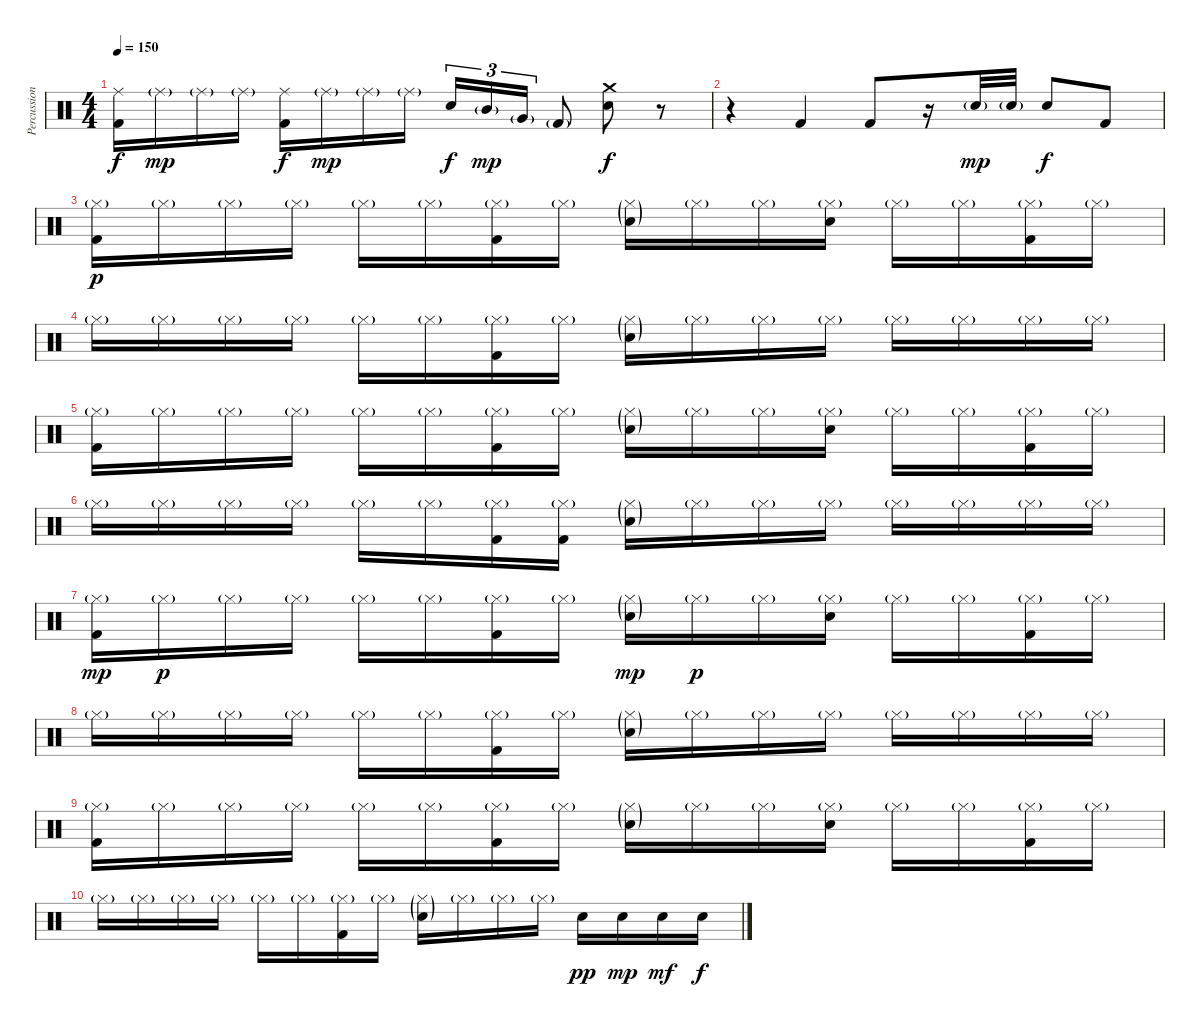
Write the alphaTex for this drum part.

\track ("Percussion" "Percussion") {instrument percussion}
\staff {score}
\articulation defaults
\ts (4 4)
\tempo 150
\clef neutral
\ks c
("Ride (middle)" "Kick (hit) 2").16{dy f} "Ride (middle)"{g}.16{dy mp} "Ride (middle)"{g}.16 "Ride (middle)"{g}.16 ("Ride (middle)" "Kick (hit) 2").16{dy f} "Ride (middle)"{g}.16{dy mp} "Ride (middle)"{g}.16 "Ride (middle)"{g}.16 "Electric Snare (hit)".16{tu (3 2) dy f} "Mid Tom (hit)"{g}.16{tu (3 2) dy mp} "Very Low Tom (hit)"{g}.16{tu (3 2)} "Kick (hit) 2"{g}.8 ("Crash medium (hit)" "Electric Snare (hit)").8{dy f} r.8 |
r.4 "Kick (hit) 2".4 "Kick (hit) 2".8 r.16 "Electric Snare (hit)"{g}.32{dy mp} "Electric Snare (hit)"{g}.32 "Electric Snare (hit)".8{dy f} "Kick (hit) 2".8 |
("Hi-Hat (closed)"{g} "Kick (hit) 2").16{dy p} "Hi-Hat (closed)"{g}.16 "Hi-Hat (closed)"{g}.16 "Hi-Hat (closed)"{g}.16 "Hi-Hat (closed)"{g}.16 "Hi-Hat (closed)"{g}.16 ("Hi-Hat (closed)"{g} "Kick (hit) 2").16 "Hi-Hat (closed)"{g}.16 ("Electric Snare (hit)"{g} "Hi-Hat (closed)"{g}).16 "Hi-Hat (closed)"{g}.16 "Hi-Hat (closed)"{g}.16 ("Electric Snare (hit)" "Hi-Hat (closed)"{g}).16 "Hi-Hat (closed)"{g}.16 "Hi-Hat (closed)"{g}.16 ("Hi-Hat (closed)"{g} "Kick (hit) 2").16 "Hi-Hat (closed)"{g}.16 |
"Hi-Hat (closed)"{g}.16 "Hi-Hat (closed)"{g}.16 "Hi-Hat (closed)"{g}.16 "Hi-Hat (closed)"{g}.16 "Hi-Hat (closed)"{g}.16 "Hi-Hat (closed)"{g}.16 ("Hi-Hat (closed)"{g} "Kick (hit) 2").16 "Hi-Hat (closed)"{g}.16 ("Electric Snare (hit)"{g} "Hi-Hat (closed)"{g}).16 "Hi-Hat (closed)"{g}.16 "Hi-Hat (closed)"{g}.16 "Hi-Hat (closed)"{g}.16 "Hi-Hat (closed)"{g}.16 "Hi-Hat (closed)"{g}.16 "Hi-Hat (closed)"{g}.16 "Hi-Hat (closed)"{g}.16 |
("Hi-Hat (closed)"{g} "Kick (hit) 2").16 "Hi-Hat (closed)"{g}.16 "Hi-Hat (closed)"{g}.16 "Hi-Hat (closed)"{g}.16 "Hi-Hat (closed)"{g}.16 "Hi-Hat (closed)"{g}.16 ("Hi-Hat (closed)"{g} "Kick (hit) 2").16 "Hi-Hat (closed)"{g}.16 ("Electric Snare (hit)"{g} "Hi-Hat (closed)"{g}).16 "Hi-Hat (closed)"{g}.16 "Hi-Hat (closed)"{g}.16 ("Electric Snare (hit)" "Hi-Hat (closed)"{g}).16 "Hi-Hat (closed)"{g}.16 "Hi-Hat (closed)"{g}.16 ("Hi-Hat (closed)"{g} "Kick (hit) 2").16 "Hi-Hat (closed)"{g}.16 |
"Hi-Hat (closed)"{g}.16 "Hi-Hat (closed)"{g}.16 "Hi-Hat (closed)"{g}.16 "Hi-Hat (closed)"{g}.16 "Hi-Hat (closed)"{g}.16 "Hi-Hat (closed)"{g}.16 ("Hi-Hat (closed)"{g} "Kick (hit) 2").16 ("Hi-Hat (closed)"{g} "Kick (hit) 2").16 ("Electric Snare (hit)"{g} "Hi-Hat (closed)"{g}).16 "Hi-Hat (closed)"{g}.16 "Hi-Hat (closed)"{g}.16 "Hi-Hat (closed)"{g}.16 "Hi-Hat (closed)"{g}.16 "Hi-Hat (closed)"{g}.16 "Hi-Hat (closed)"{g}.16 "Hi-Hat (closed)"{g}.16 |
("Hi-Hat (closed)"{g} "Kick (hit) 2").16{dy mp} "Hi-Hat (closed)"{g}.16{dy p} "Hi-Hat (closed)"{g}.16 "Hi-Hat (closed)"{g}.16 "Hi-Hat (closed)"{g}.16 "Hi-Hat (closed)"{g}.16 ("Hi-Hat (closed)"{g} "Kick (hit) 2").16 "Hi-Hat (closed)"{g}.16 ("Electric Snare (hit)"{g} "Hi-Hat (closed)"{g}).16{dy mp} "Hi-Hat (closed)"{g}.16{dy p} "Hi-Hat (closed)"{g}.16 ("Electric Snare (hit)" "Hi-Hat (closed)"{g}).16 "Hi-Hat (closed)"{g}.16 "Hi-Hat (closed)"{g}.16 ("Hi-Hat (closed)"{g} "Kick (hit) 2").16 "Hi-Hat (closed)"{g}.16 |
"Hi-Hat (closed)"{g}.16 "Hi-Hat (closed)"{g}.16 "Hi-Hat (closed)"{g}.16 "Hi-Hat (closed)"{g}.16 "Hi-Hat (closed)"{g}.16 "Hi-Hat (closed)"{g}.16 ("Hi-Hat (closed)"{g} "Kick (hit) 2").16 "Hi-Hat (closed)"{g}.16 ("Electric Snare (hit)"{g} "Hi-Hat (closed)"{g}).16 "Hi-Hat (closed)"{g}.16 "Hi-Hat (closed)"{g}.16 "Hi-Hat (closed)"{g}.16 "Hi-Hat (closed)"{g}.16 "Hi-Hat (closed)"{g}.16 "Hi-Hat (closed)"{g}.16 "Hi-Hat (closed)"{g}.16 |
("Hi-Hat (closed)"{g} "Kick (hit) 2").16 "Hi-Hat (closed)"{g}.16 "Hi-Hat (closed)"{g}.16 "Hi-Hat (closed)"{g}.16 "Hi-Hat (closed)"{g}.16 "Hi-Hat (closed)"{g}.16 ("Hi-Hat (closed)"{g} "Kick (hit) 2").16 "Hi-Hat (closed)"{g}.16 ("Electric Snare (hit)"{g} "Hi-Hat (closed)"{g}).16 "Hi-Hat (closed)"{g}.16 "Hi-Hat (closed)"{g}.16 ("Electric Snare (hit)" "Hi-Hat (closed)"{g}).16 "Hi-Hat (closed)"{g}.16 "Hi-Hat (closed)"{g}.16 ("Hi-Hat (closed)"{g} "Kick (hit) 2").16 "Hi-Hat (closed)"{g}.16 |
"Hi-Hat (closed)"{g}.16 "Hi-Hat (closed)"{g}.16 "Hi-Hat (closed)"{g}.16 "Hi-Hat (closed)"{g}.16 "Hi-Hat (closed)"{g}.16 "Hi-Hat (closed)"{g}.16 ("Hi-Hat (closed)"{g} "Kick (hit) 2").16 "Hi-Hat (closed)"{g}.16 ("Electric Snare (hit)"{g} "Hi-Hat (closed)"{g}).16 "Hi-Hat (closed)"{g}.16 "Hi-Hat (closed)"{g}.16 "Hi-Hat (closed)"{g}.16 "Electric Snare (hit)".16{dy pp} "Electric Snare (hit)".16{dy mp} "Electric Snare (hit)".16{dy mf} "Electric Snare (hit)".16{dy f}
